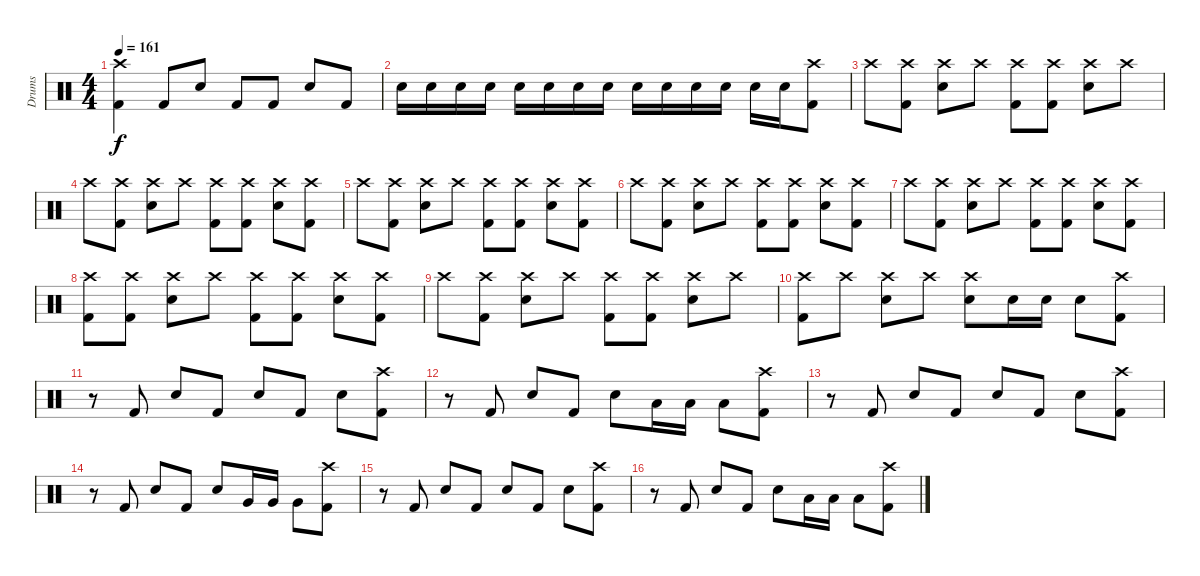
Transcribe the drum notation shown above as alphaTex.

\track ("Drums" "Drums") {instrument percussion}
\staff {score}
\articulation defaults
\ts (4 4)
\tempo 161
\clef neutral
\ks c
("Crash high (hit)" "Kick (hit) 2").4{dy f} "Kick (hit) 2".8 "Electric Snare (hit)".8 "Kick (hit) 2".8 "Kick (hit) 2".8 "Electric Snare (hit)".8 "Kick (hit) 2".8 |
"Electric Snare (hit)".16 "Electric Snare (hit)".16 "Electric Snare (hit)".16 "Electric Snare (hit)".16 "Electric Snare (hit)".16 "Electric Snare (hit)".16 "Electric Snare (hit)".16 "Electric Snare (hit)".16 "Electric Snare (hit)".16 "Electric Snare (hit)".16 "Electric Snare (hit)".16 "Electric Snare (hit)".16 "Electric Snare (hit)".16 "Electric Snare (hit)".16 ("Crash high (hit)" "Kick (hit) 2").8 |
"Crash high (hit)".8 ("Crash high (hit)" "Kick (hit) 2").8 ("Crash high (hit)" "Electric Snare (hit)").8 "Crash high (hit)".8 ("Crash high (hit)" "Kick (hit) 2").8 ("Crash high (hit)" "Kick (hit) 2").8 ("Crash high (hit)" "Electric Snare (hit)").8 "Crash high (hit)".8 |
"Crash high (hit)".8 ("Crash high (hit)" "Kick (hit) 2").8 ("Crash high (hit)" "Electric Snare (hit)").8 "Crash high (hit)".8 ("Crash high (hit)" "Kick (hit) 2").8 ("Crash high (hit)" "Kick (hit) 2").8 ("Crash high (hit)" "Electric Snare (hit)").8 ("Crash high (hit)" "Kick (hit) 2").8 |
"Crash high (hit)".8 ("Crash high (hit)" "Kick (hit) 2").8 ("Crash high (hit)" "Electric Snare (hit)").8 "Crash high (hit)".8 ("Crash high (hit)" "Kick (hit) 2").8 ("Crash high (hit)" "Kick (hit) 2").8 ("Crash high (hit)" "Electric Snare (hit)").8 ("Crash high (hit)" "Kick (hit) 2").8 |
"Crash high (hit)".8 ("Crash high (hit)" "Kick (hit) 2").8 ("Crash high (hit)" "Electric Snare (hit)").8 "Crash high (hit)".8 ("Crash high (hit)" "Kick (hit) 2").8 ("Crash high (hit)" "Kick (hit) 2").8 ("Crash high (hit)" "Electric Snare (hit)").8 ("Crash high (hit)" "Kick (hit) 2").8 |
"Crash high (hit)".8 ("Crash high (hit)" "Kick (hit) 2").8 ("Crash high (hit)" "Electric Snare (hit)").8 "Crash high (hit)".8 ("Crash high (hit)" "Kick (hit) 2").8 ("Crash high (hit)" "Kick (hit) 2").8 ("Crash high (hit)" "Electric Snare (hit)").8 ("Crash high (hit)" "Kick (hit) 2").8 |
("Crash high (hit)" "Kick (hit) 2").8 ("Crash high (hit)" "Kick (hit) 2").8 ("Crash high (hit)" "Electric Snare (hit)").8 "Crash high (hit)".8 ("Crash high (hit)" "Kick (hit) 2").8 ("Crash high (hit)" "Kick (hit) 2").8 ("Crash high (hit)" "Electric Snare (hit)").8 ("Crash high (hit)" "Kick (hit) 2").8 |
"Crash high (hit)".8 ("Crash high (hit)" "Kick (hit) 2").8 ("Crash high (hit)" "Electric Snare (hit)").8 "Crash high (hit)".8 ("Crash high (hit)" "Kick (hit) 2").8 ("Crash high (hit)" "Kick (hit) 2").8 ("Crash high (hit)" "Electric Snare (hit)").8 "Crash high (hit)".8 |
("Crash high (hit)" "Kick (hit) 2").8 "Crash high (hit)".8 ("Crash high (hit)" "Electric Snare (hit)").8 "Crash high (hit)".8 ("Crash high (hit)" "Electric Snare (hit)").8 "Electric Snare (hit)".16 "Electric Snare (hit)".16 "Electric Snare (hit)".8 ("Crash high (hit)" "Kick (hit) 2").8 |
r.8 "Kick (hit) 2".8 "Electric Snare (hit)".8 "Kick (hit) 2".8 "Electric Snare (hit)".8 "Kick (hit) 2".8 "Electric Snare (hit)".8 ("Crash high (hit)" "Kick (hit) 2").8 |
r.8 "Kick (hit) 2".8 "Electric Snare (hit)".8 "Kick (hit) 2".8 "Electric Snare (hit)".8 "Low Tom (hit)".16 "Low Tom (hit)".16 "Low Tom (hit)".8 ("Crash high (hit)" "Kick (hit) 2").8 |
r.8 "Kick (hit) 2".8 "Electric Snare (hit)".8 "Kick (hit) 2".8 "Electric Snare (hit)".8 "Kick (hit) 2".8 "Electric Snare (hit)".8 ("Crash high (hit)" "Kick (hit) 2").8 |
r.8 "Kick (hit) 2".8 "Electric Snare (hit)".8 "Kick (hit) 2".8 "Electric Snare (hit)".8 "Very Low Tom (hit)".16 "Very Low Tom (hit)".16 "Very Low Tom (hit)".8 ("Crash high (hit)" "Kick (hit) 2").8 |
r.8 "Kick (hit) 2".8 "Electric Snare (hit)".8 "Kick (hit) 2".8 "Electric Snare (hit)".8 "Kick (hit) 2".8 "Electric Snare (hit)".8 ("Crash high (hit)" "Kick (hit) 2").8 |
r.8 "Kick (hit) 2".8 "Electric Snare (hit)".8 "Kick (hit) 2".8 "Electric Snare (hit)".8 "Low Tom (hit)".16 "Low Tom (hit)".16 "Low Tom (hit)".8 ("Crash high (hit)" "Kick (hit) 2").8
